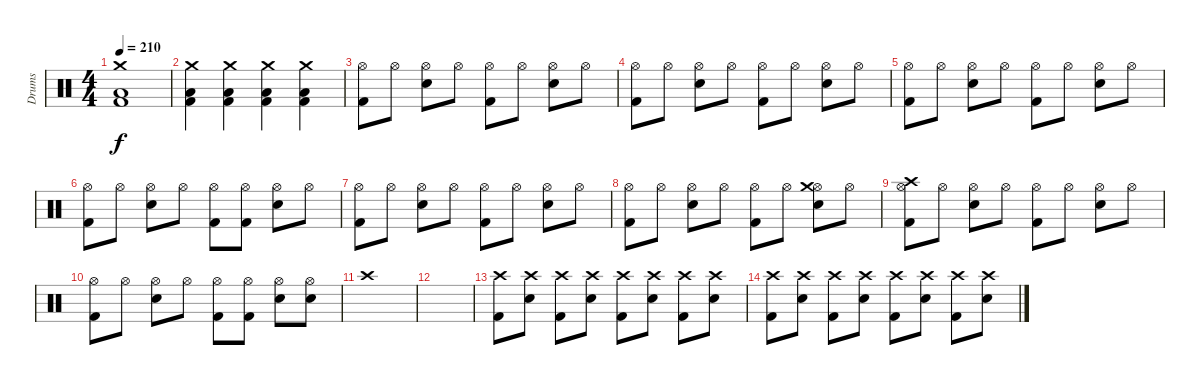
\track ("Drums" "Drums") {instrument percussion}
\staff {score}
\articulation defaults
\ts (4 4)
\tempo 210
\clef neutral
\ks c
("Crash medium (hit)" "Low Floor Tom (hit)" "Kick (hit) 2").1{dy f} |
("Crash medium (hit)" "Low Floor Tom (hit)" "Kick (hit) 2").4 ("Crash medium (hit)" "Low Floor Tom (hit)" "Kick (hit) 2").4 ("Crash medium (hit)" "Low Floor Tom (hit)" "Kick (hit) 2").4 ("Crash medium (hit)" "Low Floor Tom (hit)" "Kick (hit) 2").4 |
("Hi-Hat (open)" "Kick (hit) 2").8 "Hi-Hat (open)".8 ("Hi-Hat (open)" "Electric Snare (hit)").8 "Hi-Hat (open)".8 ("Hi-Hat (open)" "Kick (hit) 2").8 "Hi-Hat (open)".8 ("Hi-Hat (open)" "Electric Snare (hit)").8 "Hi-Hat (open)".8 |
("Hi-Hat (open)" "Kick (hit) 2").8 "Hi-Hat (open)".8 ("Hi-Hat (open)" "Electric Snare (hit)").8 "Hi-Hat (open)".8 ("Hi-Hat (open)" "Kick (hit) 2").8 "Hi-Hat (open)".8 ("Hi-Hat (open)" "Electric Snare (hit)").8 "Hi-Hat (open)".8 |
("Hi-Hat (open)" "Kick (hit) 2").8 "Hi-Hat (open)".8 ("Hi-Hat (open)" "Electric Snare (hit)").8 "Hi-Hat (open)".8 ("Hi-Hat (open)" "Kick (hit) 2").8 "Hi-Hat (open)".8 ("Hi-Hat (open)" "Electric Snare (hit)").8 "Hi-Hat (open)".8 |
("Hi-Hat (open)" "Kick (hit) 2").8 "Hi-Hat (open)".8 ("Hi-Hat (open)" "Electric Snare (hit)").8 "Hi-Hat (open)".8 ("Hi-Hat (open)" "Kick (hit) 2").8 ("Hi-Hat (open)" "Kick (hit) 2").8 ("Hi-Hat (open)" "Electric Snare (hit)").8 "Hi-Hat (open)".8 |
("Hi-Hat (open)" "Kick (hit) 2").8 "Hi-Hat (open)".8 ("Hi-Hat (open)" "Electric Snare (hit)").8 "Hi-Hat (open)".8 ("Hi-Hat (open)" "Kick (hit) 2").8 "Hi-Hat (open)".8 ("Hi-Hat (open)" "Electric Snare (hit)").8 "Hi-Hat (open)".8 |
("Hi-Hat (open)" "Kick (hit) 2").8 "Hi-Hat (open)".8 ("Hi-Hat (open)" "Electric Snare (hit)").8 "Hi-Hat (open)".8 ("Hi-Hat (open)" "Kick (hit) 2").8 "Hi-Hat (open)".8 ("Hi-Hat (open)" "Crash medium (hit)" "Electric Snare (hit)").8 "Hi-Hat (open)".8 |
("Hi-Hat (open)" "Crash high (hit)" "Kick (hit) 2").8 "Hi-Hat (open)".8 ("Hi-Hat (open)" "Electric Snare (hit)").8 "Hi-Hat (open)".8 ("Hi-Hat (open)" "Kick (hit) 2").8 "Hi-Hat (open)".8 ("Hi-Hat (open)" "Electric Snare (hit)").8 "Hi-Hat (open)".8 |
("Hi-Hat (open)" "Kick (hit) 2").8 "Hi-Hat (open)".8 ("Hi-Hat (open)" "Electric Snare (hit)").8 "Hi-Hat (open)".8 ("Hi-Hat (open)" "Kick (hit) 2").8 ("Hi-Hat (open)" "Kick (hit) 2").8 ("Hi-Hat (open)" "Electric Snare (hit)").8 ("Hi-Hat (open)" "Electric Snare (hit)").8 |
"Crash high (hit)".1 |
|
("Crash high (hit)" "Kick (hit) 2").8 ("Crash high (hit)" "Electric Snare (hit)").8 ("Crash high (hit)" "Kick (hit) 2").8 ("Crash high (hit)" "Electric Snare (hit)").8 ("Crash high (hit)" "Kick (hit) 2").8 ("Crash high (hit)" "Electric Snare (hit)").8 ("Crash high (hit)" "Kick (hit) 2").8 ("Crash high (hit)" "Electric Snare (hit)").8 |
("Crash high (hit)" "Kick (hit) 2").8 ("Crash high (hit)" "Electric Snare (hit)").8 ("Crash high (hit)" "Kick (hit) 2").8 ("Crash high (hit)" "Electric Snare (hit)").8 ("Crash high (hit)" "Kick (hit) 2").8 ("Crash high (hit)" "Electric Snare (hit)").8 ("Crash high (hit)" "Kick (hit) 2").8 ("Crash high (hit)" "Electric Snare (hit)").8
